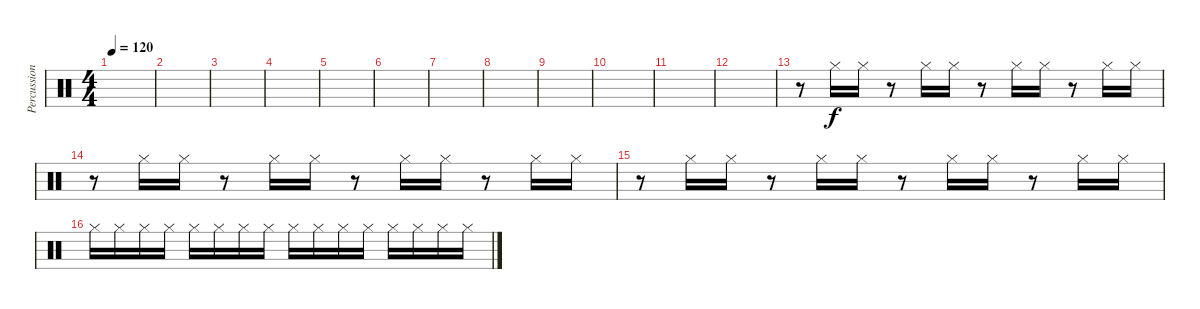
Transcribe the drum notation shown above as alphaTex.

\track ("Percussion" "Percussion") {instrument percussion}
\staff {score}
\articulation defaults
\ts (4 4)
\tempo 120
\clef neutral
\ks c
|
|
|
|
|
|
|
|
|
|
|
|
r.8 "Hi-Hat (closed)".16 "Hi-Hat (closed)".16 r.8 "Hi-Hat (closed)".16 "Hi-Hat (closed)".16 r.8 "Hi-Hat (closed)".16 "Hi-Hat (closed)".16 r.8 "Hi-Hat (closed)".16 "Hi-Hat (closed)".16 |
r.8 "Hi-Hat (closed)".16 "Hi-Hat (closed)".16 r.8 "Hi-Hat (closed)".16 "Hi-Hat (closed)".16 r.8 "Hi-Hat (closed)".16 "Hi-Hat (closed)".16 r.8 "Hi-Hat (closed)".16 "Hi-Hat (closed)".16 |
r.8 "Hi-Hat (closed)".16 "Hi-Hat (closed)".16 r.8 "Hi-Hat (closed)".16 "Hi-Hat (closed)".16 r.8 "Hi-Hat (closed)".16 "Hi-Hat (closed)".16 r.8 "Hi-Hat (closed)".16 "Hi-Hat (closed)".16 |
"Hi-Hat (closed)".16 "Hi-Hat (closed)".16 "Hi-Hat (closed)".16 "Hi-Hat (closed)".16 "Hi-Hat (closed)".16 "Hi-Hat (closed)".16 "Hi-Hat (closed)".16 "Hi-Hat (closed)".16 "Hi-Hat (closed)".16 "Hi-Hat (closed)".16 "Hi-Hat (closed)".16 "Hi-Hat (closed)".16 "Hi-Hat (closed)".16 "Hi-Hat (closed)".16 "Hi-Hat (closed)".16 "Hi-Hat (closed)".16
